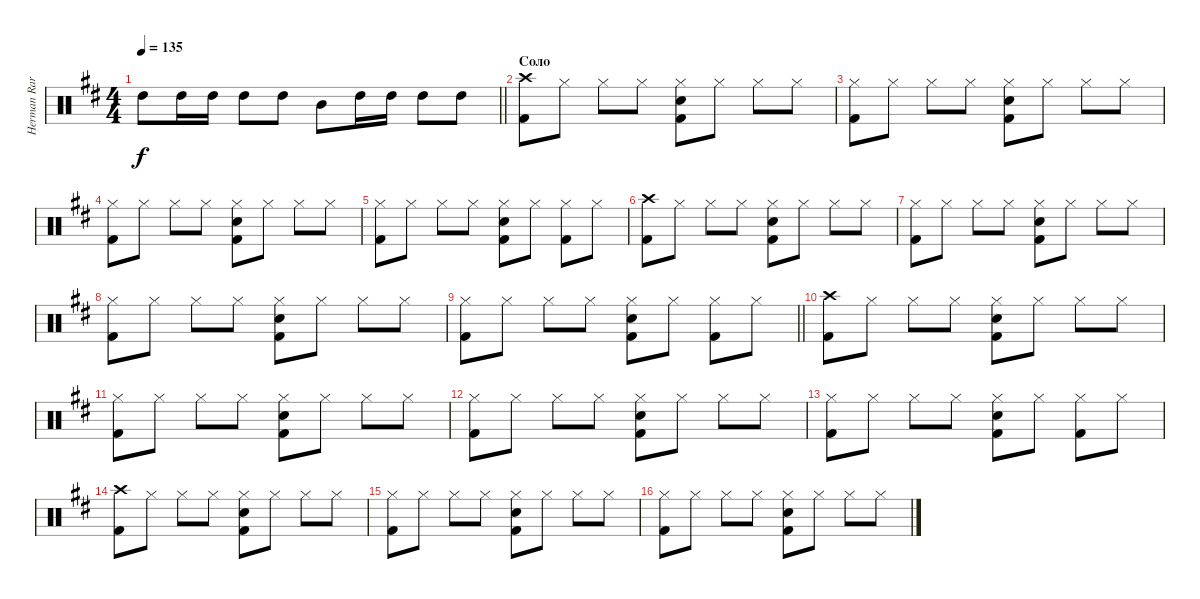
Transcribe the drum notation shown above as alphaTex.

\track ("Herman Rarebell" "Herman Rar") {instrument percussion}
\staff {score}
\articulation defaults
\ts (4 4)
\tempo 135
\clef neutral
\barLineRight lightlight
\ks d "High Tom (hit)".8{dy f} "High Tom (hit)".16 "High Tom (hit)".16 "High Tom (hit)".8 "High Tom (hit)".8 "Mid Tom (hit)".8 "High Tom (hit)".16 "High Tom (hit)".16 "High Tom (hit)".8 "High Tom (hit)".8
|
\section ("" "Соло")
("Crash high (hit)" "Kick (hit) 2").8 "Hi-Hat (closed)".8 "Hi-Hat (closed)".8 "Hi-Hat (closed)".8 ("Hi-Hat (closed)" "Snare (hit) 2" "Kick (hit) 2").8 "Hi-Hat (closed)".8 "Hi-Hat (closed)".8 "Hi-Hat (closed)".8 |
("Hi-Hat (closed)" "Kick (hit) 2").8 "Hi-Hat (closed)".8 "Hi-Hat (closed)".8 "Hi-Hat (closed)".8 ("Hi-Hat (closed)" "Snare (hit) 2" "Kick (hit) 2").8 "Hi-Hat (closed)".8 "Hi-Hat (closed)".8 "Hi-Hat (closed)".8 |
("Hi-Hat (closed)" "Kick (hit) 2").8 "Hi-Hat (closed)".8 "Hi-Hat (closed)".8 "Hi-Hat (closed)".8 ("Hi-Hat (closed)" "Snare (hit) 2" "Kick (hit) 2").8 "Hi-Hat (closed)".8 "Hi-Hat (closed)".8 "Hi-Hat (closed)".8 |
("Hi-Hat (closed)" "Kick (hit) 2").8 "Hi-Hat (closed)".8 "Hi-Hat (closed)".8 "Hi-Hat (closed)".8 ("Hi-Hat (closed)" "Snare (hit) 2" "Kick (hit) 2").8 "Hi-Hat (closed)".8 ("Hi-Hat (closed)" "Kick (hit) 2").8 "Hi-Hat (closed)".8 |
("Crash high (hit)" "Kick (hit) 2").8 "Hi-Hat (closed)".8 "Hi-Hat (closed)".8 "Hi-Hat (closed)".8 ("Hi-Hat (closed)" "Snare (hit) 2" "Kick (hit) 2").8 "Hi-Hat (closed)".8 "Hi-Hat (closed)".8 "Hi-Hat (closed)".8 |
("Hi-Hat (closed)" "Kick (hit) 2").8 "Hi-Hat (closed)".8 "Hi-Hat (closed)".8 "Hi-Hat (closed)".8 ("Hi-Hat (closed)" "Snare (hit) 2" "Kick (hit) 2").8 "Hi-Hat (closed)".8 "Hi-Hat (closed)".8 "Hi-Hat (closed)".8 |
("Hi-Hat (closed)" "Kick (hit) 2").8 "Hi-Hat (closed)".8 "Hi-Hat (closed)".8 "Hi-Hat (closed)".8 ("Hi-Hat (closed)" "Snare (hit) 2" "Kick (hit) 2").8 "Hi-Hat (closed)".8 "Hi-Hat (closed)".8 "Hi-Hat (closed)".8 |
\barLineRight lightlight
("Hi-Hat (closed)" "Kick (hit) 2").8 "Hi-Hat (closed)".8 "Hi-Hat (closed)".8 "Hi-Hat (closed)".8 ("Hi-Hat (closed)" "Snare (hit) 2" "Kick (hit) 2").8 "Hi-Hat (closed)".8 ("Hi-Hat (closed)" "Kick (hit) 2").8 "Hi-Hat (closed)".8 |
("Crash high (hit)" "Kick (hit) 2").8 "Hi-Hat (closed)".8 "Hi-Hat (closed)".8 "Hi-Hat (closed)".8 ("Hi-Hat (closed)" "Snare (hit) 2" "Kick (hit) 2").8 "Hi-Hat (closed)".8 "Hi-Hat (closed)".8 "Hi-Hat (closed)".8 |
("Hi-Hat (closed)" "Kick (hit) 2").8 "Hi-Hat (closed)".8 "Hi-Hat (closed)".8 "Hi-Hat (closed)".8 ("Hi-Hat (closed)" "Snare (hit) 2" "Kick (hit) 2").8 "Hi-Hat (closed)".8 "Hi-Hat (closed)".8 "Hi-Hat (closed)".8 |
("Hi-Hat (closed)" "Kick (hit) 2").8 "Hi-Hat (closed)".8 "Hi-Hat (closed)".8 "Hi-Hat (closed)".8 ("Hi-Hat (closed)" "Snare (hit) 2" "Kick (hit) 2").8 "Hi-Hat (closed)".8 "Hi-Hat (closed)".8 "Hi-Hat (closed)".8 |
("Hi-Hat (closed)" "Kick (hit) 2").8 "Hi-Hat (closed)".8 "Hi-Hat (closed)".8 "Hi-Hat (closed)".8 ("Hi-Hat (closed)" "Snare (hit) 2" "Kick (hit) 2").8 "Hi-Hat (closed)".8 ("Hi-Hat (closed)" "Kick (hit) 2").8 "Hi-Hat (closed)".8 |
("Crash high (hit)" "Kick (hit) 2").8 "Hi-Hat (closed)".8 "Hi-Hat (closed)".8 "Hi-Hat (closed)".8 ("Hi-Hat (closed)" "Snare (hit) 2" "Kick (hit) 2").8 "Hi-Hat (closed)".8 "Hi-Hat (closed)".8 "Hi-Hat (closed)".8 |
("Hi-Hat (closed)" "Kick (hit) 2").8 "Hi-Hat (closed)".8 "Hi-Hat (closed)".8 "Hi-Hat (closed)".8 ("Hi-Hat (closed)" "Snare (hit) 2" "Kick (hit) 2").8 "Hi-Hat (closed)".8 "Hi-Hat (closed)".8 "Hi-Hat (closed)".8 |
("Hi-Hat (closed)" "Kick (hit) 2").8 "Hi-Hat (closed)".8 "Hi-Hat (closed)".8 "Hi-Hat (closed)".8 ("Hi-Hat (closed)" "Snare (hit) 2" "Kick (hit) 2").8 "Hi-Hat (closed)".8 "Hi-Hat (closed)".8 "Hi-Hat (closed)".8
